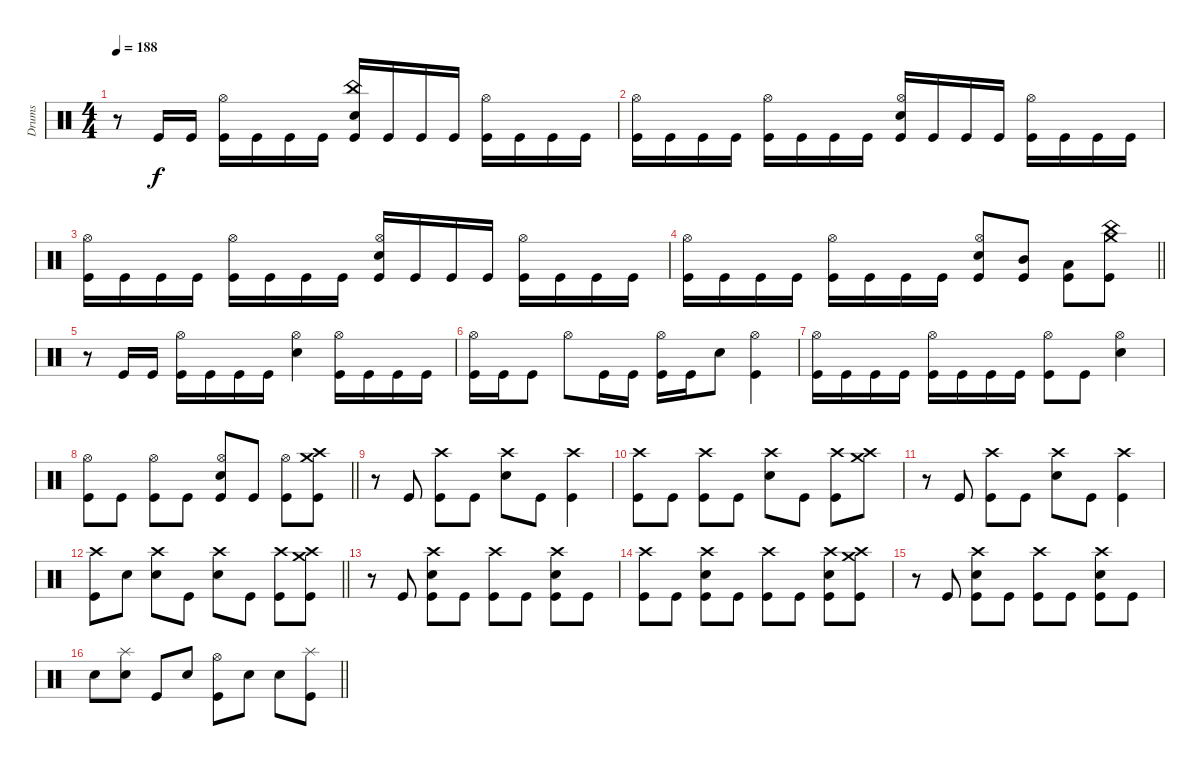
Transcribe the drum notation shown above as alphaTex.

\track ("Drums" "Drums") {instrument percussion}
\staff
\articulation defaults
\ts (4 4)
\tempo 188
\clef neutral
\ks c
r.8{dy f} "Kick (hit)".16 "Kick (hit)".16 ("Hi-Hat (open)" "Kick (hit)").16 "Kick (hit)".16 "Kick (hit)".16 "Kick (hit)".16 ("China (hit)" "Electric Snare (hit)" "Kick (hit)").16 "Kick (hit)".16 "Kick (hit)".16 "Kick (hit)".16 ("Hi-Hat (open)" "Kick (hit)").16 "Kick (hit)".16 "Kick (hit)".16 "Kick (hit)".16 |
("Hi-Hat (open)" "Kick (hit)").16 "Kick (hit)".16 "Kick (hit)".16 "Kick (hit)".16 ("Hi-Hat (open)" "Kick (hit)").16 "Kick (hit)".16 "Kick (hit)".16 "Kick (hit)".16 ("Hi-Hat (open)" "Electric Snare (hit)" "Kick (hit)").16 "Kick (hit)".16 "Kick (hit)".16 "Kick (hit)".16 ("Hi-Hat (open)" "Kick (hit)").16 "Kick (hit)".16 "Kick (hit)".16 "Kick (hit)".16 |
("Hi-Hat (open)" "Kick (hit)").16 "Kick (hit)".16 "Kick (hit)".16 "Kick (hit)".16 ("Hi-Hat (open)" "Kick (hit)").16 "Kick (hit)".16 "Kick (hit)".16 "Kick (hit)".16 ("Hi-Hat (open)" "Electric Snare (hit)" "Kick (hit)").16 "Kick (hit)".16 "Kick (hit)".16 "Kick (hit)".16 ("Hi-Hat (open)" "Kick (hit)").16 "Kick (hit)".16 "Kick (hit)".16 "Kick (hit)".16 |
\barLineRight lightlight
("Hi-Hat (open)" "Kick (hit)").16 "Kick (hit)".16 "Kick (hit)".16 "Kick (hit)".16 ("Hi-Hat (open)" "Kick (hit)").16 "Kick (hit)".16 "Kick (hit)".16 "Kick (hit)".16 ("Hi-Hat (open)" "Electric Snare (hit)" "Kick (hit)").8 ("Mid Tom (hit)" "Kick (hit)").8 ("Low Tom (hit)" "Kick (hit)").8 ("China (hit)" "Crash medium (hit)" "Kick (hit)").8 |
r.8 "Kick (hit)".16 "Kick (hit)".16 ("Hi-Hat (open)" "Kick (hit)").16 "Kick (hit)".16 "Kick (hit)".16 "Kick (hit)".16 ("Hi-Hat (open)" "Electric Snare (hit)").4 ("Hi-Hat (open)" "Kick (hit)").16 "Kick (hit)".16 "Kick (hit)".16 "Kick (hit)".16 |
("Hi-Hat (open)" "Kick (hit)").16 "Kick (hit)".16 "Kick (hit)".8 "Hi-Hat (open)".8 "Kick (hit)".16 "Kick (hit)".16 ("Hi-Hat (open)" "Kick (hit)").16 "Kick (hit)".16 "Electric Snare (hit)".8 ("Hi-Hat (open)" "Kick (hit)").4 |
("Hi-Hat (open)" "Kick (hit)").16 "Kick (hit)".16 "Kick (hit)".16 "Kick (hit)".16 ("Hi-Hat (open)" "Kick (hit)").16 "Kick (hit)".16 "Kick (hit)".16 "Kick (hit)".16 ("Hi-Hat (open)" "Kick (hit)").8 "Kick (hit)".8 ("Hi-Hat (open)" "Electric Snare (hit)").4 |
\barLineRight lightlight
("Hi-Hat (open)" "Kick (hit)").8 "Kick (hit)".8 ("Hi-Hat (open)" "Kick (hit)").8 "Kick (hit)".8 ("Hi-Hat (open)" "Electric Snare (hit)" "Kick (hit)").8 "Kick (hit)".8 ("Hi-Hat (open)" "Kick (hit)").8 ("Crash high (hit)" "Crash medium (hit)" "Kick (hit)").8 |
\section ("" "")
r.8 "Kick (hit)".8 ("Crash high (hit)" "Kick (hit)").8 "Kick (hit)".8 ("Crash high (hit)" "Electric Snare (hit)").8 "Kick (hit)".8 ("Crash high (hit)" "Kick (hit)").4 |
("Crash high (hit)" "Kick (hit)").8 "Kick (hit)".8 ("Crash high (hit)" "Kick (hit)").8 "Kick (hit)".8 ("Crash high (hit)" "Electric Snare (hit)").8 "Kick (hit)".8 ("Crash high (hit)" "Kick (hit)").8 ("Crash high (hit)" "Crash medium (hit)").8 |
r.8 "Kick (hit)".8 ("Crash high (hit)" "Kick (hit)").8 "Kick (hit)".8 ("Crash high (hit)" "Electric Snare (hit)").8 "Kick (hit)".8 ("Crash high (hit)" "Kick (hit)").4 |
\barLineRight lightlight
("Crash high (hit)" "Kick (hit)").8 "Electric Snare (hit)".8 ("Crash high (hit)" "Electric Snare (hit)").8 "Kick (hit)".8 ("Crash high (hit)" "Electric Snare (hit)").8 "Kick (hit)".8 ("Crash high (hit)" "Kick (hit)").8 ("Crash high (hit)" "Crash medium (hit)" "Kick (hit)").8 |
r.8 "Kick (hit)".8 ("Crash high (hit)" "Electric Snare (hit)" "Kick (hit)").8 "Kick (hit)".8 ("Crash high (hit)" "Kick (hit)").8 "Kick (hit)".8 ("Crash high (hit)" "Electric Snare (hit)" "Kick (hit)").8 "Kick (hit)".8 |
("Crash high (hit)" "Kick (hit)").8 "Kick (hit)".8 ("Crash high (hit)" "Electric Snare (hit)" "Kick (hit)").8 "Kick (hit)".8 ("Crash high (hit)" "Kick (hit)").8 "Kick (hit)".8 ("Crash high (hit)" "Electric Snare (hit)" "Kick (hit)").8 ("Crash high (hit)" "Crash medium (hit)" "Kick (hit)").8 |
r.8 "Kick (hit)".8 ("Crash high (hit)" "Electric Snare (hit)" "Kick (hit)").8 "Kick (hit)".8 ("Crash high (hit)" "Kick (hit)").8 "Kick (hit)".8 ("Crash high (hit)" "Electric Snare (hit)" "Kick (hit)").8 "Kick (hit)".8 |
\barLineRight lightlight "Electric Snare (hit)".8
("Splash (hit)" "Electric Snare (hit)").8 "Kick (hit)".8 "Electric Snare (hit)".8 ("Hi-Hat (open)" "Kick (hit)").8 "Electric Snare (hit)".8 "Electric Snare (hit)".8 ("Splash (hit)" "Kick (hit)").8
